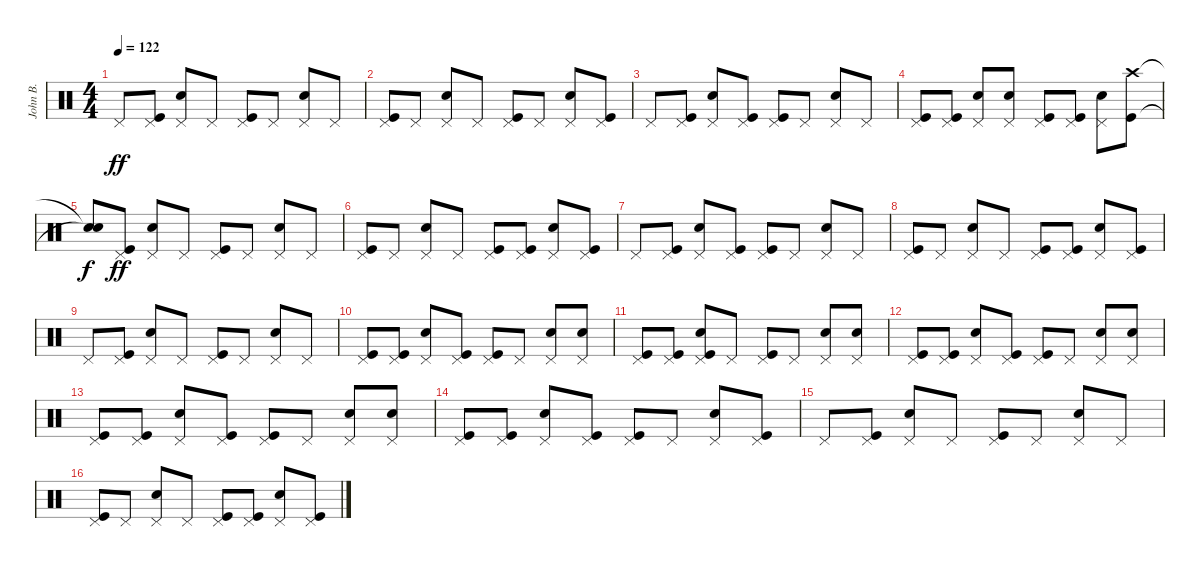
\track ("John B." "John B.") {instrument percussion}
\staff {score}
\articulation defaults
\ts (4 4)
\tempo 122
\clef neutral
\ks c "Pedal Hi-Hat (hit)".8{dy ff}
("Kick (hit)" "Pedal Hi-Hat (hit)").8 ("Snare (hit) 2" "Pedal Hi-Hat (hit)").8 "Pedal Hi-Hat (hit)".8 ("Kick (hit)" "Pedal Hi-Hat (hit)").8 "Pedal Hi-Hat (hit)".8 ("Snare (hit) 2" "Pedal Hi-Hat (hit)").8 "Pedal Hi-Hat (hit)".8 |
("Kick (hit)" "Pedal Hi-Hat (hit)").8 "Pedal Hi-Hat (hit)".8 ("Snare (hit) 2" "Pedal Hi-Hat (hit)").8 "Pedal Hi-Hat (hit)".8 ("Kick (hit)" "Pedal Hi-Hat (hit)").8 "Pedal Hi-Hat (hit)".8 ("Snare (hit) 2" "Pedal Hi-Hat (hit)").8 ("Kick (hit)" "Pedal Hi-Hat (hit)").8 |
"Pedal Hi-Hat (hit)".8 ("Kick (hit)" "Pedal Hi-Hat (hit)").8 ("Snare (hit) 2" "Pedal Hi-Hat (hit)").8 ("Kick (hit)" "Pedal Hi-Hat (hit)").8 ("Kick (hit)" "Pedal Hi-Hat (hit)").8 "Pedal Hi-Hat (hit)".8 ("Snare (hit) 2" "Pedal Hi-Hat (hit)").8 "Pedal Hi-Hat (hit)".8 |
("Kick (hit)" "Pedal Hi-Hat (hit)").8 ("Kick (hit)" "Pedal Hi-Hat (hit)").8 ("Snare (hit) 2" "Pedal Hi-Hat (hit)").8 ("Snare (hit) 2" "Pedal Hi-Hat (hit)").8 ("Kick (hit)" "Pedal Hi-Hat (hit)").8 ("Kick (hit)" "Pedal Hi-Hat (hit)").8 ("Snare (hit) 2" "Pedal Hi-Hat (hit)").8 ("Kick (hit)" "Crash high (hit)").8 |
("Snare (hit)"{t} "Snare (hit)"{t}).8{dy f} ("Kick (hit)" "Pedal Hi-Hat (hit)").8{dy ff} ("Snare (hit) 2" "Pedal Hi-Hat (hit)").8 "Pedal Hi-Hat (hit)".8 ("Kick (hit)" "Pedal Hi-Hat (hit)").8 "Pedal Hi-Hat (hit)".8 ("Snare (hit) 2" "Pedal Hi-Hat (hit)").8 "Pedal Hi-Hat (hit)".8 |
("Kick (hit)" "Pedal Hi-Hat (hit)").8 "Pedal Hi-Hat (hit)".8 ("Snare (hit) 2" "Pedal Hi-Hat (hit)").8 "Pedal Hi-Hat (hit)".8 ("Kick (hit)" "Pedal Hi-Hat (hit)").8 ("Kick (hit)" "Pedal Hi-Hat (hit)").8 ("Snare (hit) 2" "Pedal Hi-Hat (hit)").8 ("Kick (hit)" "Pedal Hi-Hat (hit)").8 |
"Pedal Hi-Hat (hit)".8 ("Kick (hit)" "Pedal Hi-Hat (hit)").8 ("Snare (hit) 2" "Pedal Hi-Hat (hit)").8 ("Kick (hit)" "Pedal Hi-Hat (hit)").8 ("Kick (hit)" "Pedal Hi-Hat (hit)").8 "Pedal Hi-Hat (hit)".8 ("Snare (hit) 2" "Pedal Hi-Hat (hit)").8 "Pedal Hi-Hat (hit)".8 |
("Kick (hit)" "Pedal Hi-Hat (hit)").8 "Pedal Hi-Hat (hit)".8 ("Snare (hit) 2" "Pedal Hi-Hat (hit)").8 "Pedal Hi-Hat (hit)".8 ("Kick (hit)" "Pedal Hi-Hat (hit)").8 ("Kick (hit)" "Pedal Hi-Hat (hit)").8 ("Snare (hit) 2" "Pedal Hi-Hat (hit)").8 ("Kick (hit)" "Pedal Hi-Hat (hit)").8 |
"Pedal Hi-Hat (hit)".8 ("Kick (hit)" "Pedal Hi-Hat (hit)").8 ("Snare (hit) 2" "Pedal Hi-Hat (hit)").8 "Pedal Hi-Hat (hit)".8 ("Kick (hit)" "Pedal Hi-Hat (hit)").8 "Pedal Hi-Hat (hit)".8 ("Snare (hit) 2" "Pedal Hi-Hat (hit)").8 "Pedal Hi-Hat (hit)".8 |
("Kick (hit)" "Pedal Hi-Hat (hit)").8 ("Kick (hit)" "Pedal Hi-Hat (hit)").8 ("Snare (hit) 2" "Pedal Hi-Hat (hit)").8 ("Kick (hit)" "Pedal Hi-Hat (hit)").8 ("Kick (hit)" "Pedal Hi-Hat (hit)").8 "Pedal Hi-Hat (hit)".8 ("Snare (hit) 2" "Pedal Hi-Hat (hit)").8 ("Snare (hit) 2" "Pedal Hi-Hat (hit)").8 |
("Kick (hit)" "Pedal Hi-Hat (hit)").8 ("Kick (hit)" "Pedal Hi-Hat (hit)").8 ("Kick (hit)" "Snare (hit) 2" "Pedal Hi-Hat (hit)").8 "Pedal Hi-Hat (hit)".8 ("Kick (hit)" "Pedal Hi-Hat (hit)").8 "Pedal Hi-Hat (hit)".8 ("Snare (hit) 2" "Pedal Hi-Hat (hit)").8 ("Snare (hit) 2" "Pedal Hi-Hat (hit)").8 |
("Kick (hit)" "Pedal Hi-Hat (hit)").8 ("Kick (hit)" "Pedal Hi-Hat (hit)").8 ("Snare (hit) 2" "Pedal Hi-Hat (hit)").8 ("Kick (hit)" "Pedal Hi-Hat (hit)").8 ("Kick (hit)" "Pedal Hi-Hat (hit)").8 "Pedal Hi-Hat (hit)".8 ("Snare (hit) 2" "Pedal Hi-Hat (hit)").8 ("Snare (hit) 2" "Pedal Hi-Hat (hit)").8 |
("Kick (hit)" "Pedal Hi-Hat (hit)").8 ("Kick (hit)" "Pedal Hi-Hat (hit)").8 ("Snare (hit) 2" "Pedal Hi-Hat (hit)").8 ("Kick (hit)" "Pedal Hi-Hat (hit)").8 ("Kick (hit)" "Pedal Hi-Hat (hit)").8 "Pedal Hi-Hat (hit)".8 ("Snare (hit) 2" "Pedal Hi-Hat (hit)").8 ("Snare (hit) 2" "Pedal Hi-Hat (hit)").8 |
("Kick (hit)" "Pedal Hi-Hat (hit)").8 ("Kick (hit)" "Pedal Hi-Hat (hit)").8 ("Snare (hit) 2" "Pedal Hi-Hat (hit)").8 ("Kick (hit)" "Pedal Hi-Hat (hit)").8 ("Kick (hit)" "Pedal Hi-Hat (hit)").8 "Pedal Hi-Hat (hit)".8 ("Snare (hit) 2" "Pedal Hi-Hat (hit)").8 ("Kick (hit)" "Pedal Hi-Hat (hit)").8 |
"Pedal Hi-Hat (hit)".8 ("Kick (hit)" "Pedal Hi-Hat (hit)").8 ("Snare (hit) 2" "Pedal Hi-Hat (hit)").8 "Pedal Hi-Hat (hit)".8 ("Kick (hit)" "Pedal Hi-Hat (hit)").8 "Pedal Hi-Hat (hit)".8 ("Snare (hit) 2" "Pedal Hi-Hat (hit)").8 "Pedal Hi-Hat (hit)".8 |
("Kick (hit)" "Pedal Hi-Hat (hit)").8 "Pedal Hi-Hat (hit)".8 ("Snare (hit) 2" "Pedal Hi-Hat (hit)").8 "Pedal Hi-Hat (hit)".8 ("Kick (hit)" "Pedal Hi-Hat (hit)").8 ("Kick (hit)" "Pedal Hi-Hat (hit)").8 ("Snare (hit) 2" "Pedal Hi-Hat (hit)").8 ("Kick (hit)" "Pedal Hi-Hat (hit)").8
